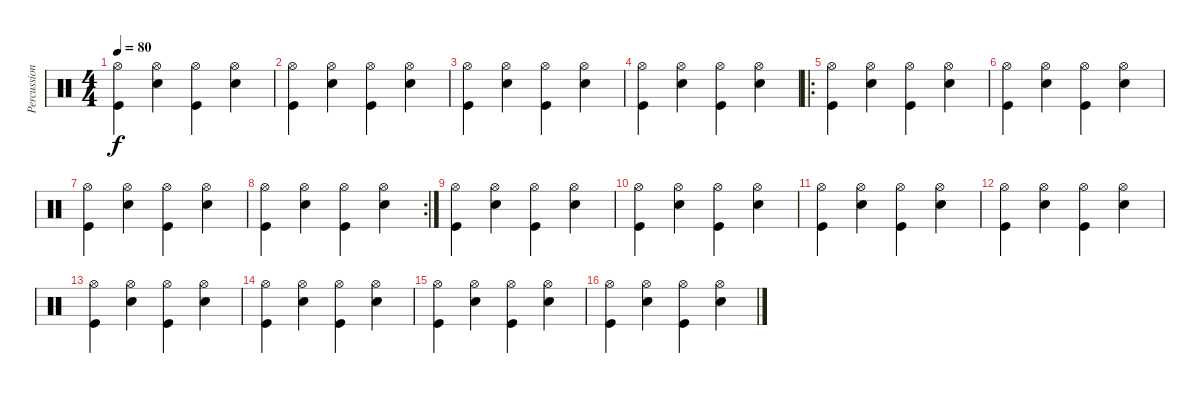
\track ("Percussion" "Percussion") {instrument percussion}
\staff {score}
\articulation defaults
\ts (4 4)
\tempo 80
\clef neutral
\ks c
("Hi-Hat (open)" "Kick (hit)").4{dy f} ("Hi-Hat (open)" "Electric Snare (hit)").4 ("Hi-Hat (open)" "Kick (hit)").4 ("Hi-Hat (open)" "Electric Snare (hit)").4 |
("Hi-Hat (open)" "Kick (hit)").4 ("Hi-Hat (open)" "Electric Snare (hit)").4 ("Hi-Hat (open)" "Kick (hit)").4 ("Hi-Hat (open)" "Electric Snare (hit)").4 |
("Hi-Hat (open)" "Kick (hit)").4 ("Hi-Hat (open)" "Electric Snare (hit)").4 ("Hi-Hat (open)" "Kick (hit)").4 ("Hi-Hat (open)" "Electric Snare (hit)").4 |
("Hi-Hat (open)" "Kick (hit)").4 ("Hi-Hat (open)" "Electric Snare (hit)").4 ("Hi-Hat (open)" "Kick (hit)").4 ("Hi-Hat (open)" "Electric Snare (hit)").4 |
\ro
("Hi-Hat (open)" "Kick (hit)").4 ("Hi-Hat (open)" "Electric Snare (hit)").4 ("Hi-Hat (open)" "Kick (hit)").4 ("Hi-Hat (open)" "Electric Snare (hit)").4 |
("Hi-Hat (open)" "Kick (hit)").4 ("Hi-Hat (open)" "Electric Snare (hit)").4 ("Hi-Hat (open)" "Kick (hit)").4 ("Hi-Hat (open)" "Electric Snare (hit)").4 |
("Hi-Hat (open)" "Kick (hit)").4 ("Hi-Hat (open)" "Electric Snare (hit)").4 ("Hi-Hat (open)" "Kick (hit)").4 ("Hi-Hat (open)" "Electric Snare (hit)").4 |
\rc 2
("Hi-Hat (open)" "Kick (hit)").4 ("Hi-Hat (open)" "Electric Snare (hit)").4 ("Hi-Hat (open)" "Kick (hit)").4 ("Hi-Hat (open)" "Electric Snare (hit)").4 |
("Hi-Hat (open)" "Kick (hit)").4 ("Hi-Hat (open)" "Electric Snare (hit)").4 ("Hi-Hat (open)" "Kick (hit)").4 ("Hi-Hat (open)" "Electric Snare (hit)").4 |
("Hi-Hat (open)" "Kick (hit)").4 ("Hi-Hat (open)" "Electric Snare (hit)").4 ("Hi-Hat (open)" "Kick (hit)").4 ("Hi-Hat (open)" "Electric Snare (hit)").4 |
("Hi-Hat (open)" "Kick (hit)").4 ("Hi-Hat (open)" "Electric Snare (hit)").4 ("Hi-Hat (open)" "Kick (hit)").4 ("Hi-Hat (open)" "Electric Snare (hit)").4 |
("Hi-Hat (open)" "Kick (hit)").4 ("Hi-Hat (open)" "Electric Snare (hit)").4 ("Hi-Hat (open)" "Kick (hit)").4 ("Hi-Hat (open)" "Electric Snare (hit)").4 |
("Hi-Hat (open)" "Kick (hit)").4 ("Hi-Hat (open)" "Electric Snare (hit)").4 ("Hi-Hat (open)" "Kick (hit)").4 ("Hi-Hat (open)" "Electric Snare (hit)").4 |
("Hi-Hat (open)" "Kick (hit)").4 ("Hi-Hat (open)" "Electric Snare (hit)").4 ("Hi-Hat (open)" "Kick (hit)").4 ("Hi-Hat (open)" "Electric Snare (hit)").4 |
("Hi-Hat (open)" "Kick (hit)").4 ("Hi-Hat (open)" "Electric Snare (hit)").4 ("Hi-Hat (open)" "Kick (hit)").4 ("Hi-Hat (open)" "Electric Snare (hit)").4 |
("Hi-Hat (open)" "Kick (hit)").4 ("Hi-Hat (open)" "Electric Snare (hit)").4 ("Hi-Hat (open)" "Kick (hit)").4 ("Hi-Hat (open)" "Electric Snare (hit)").4
